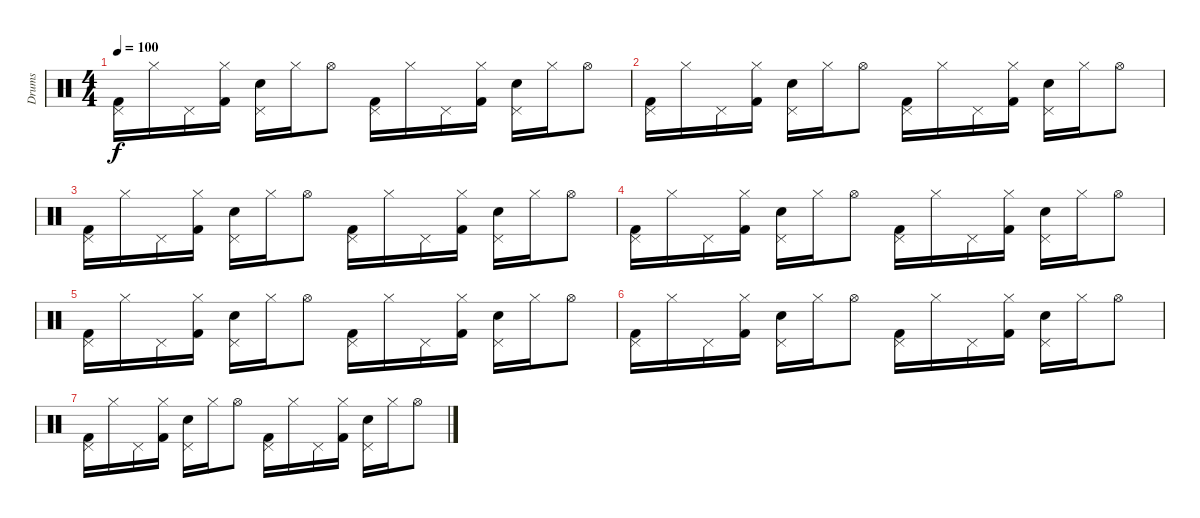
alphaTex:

\track ("Drums" "Drums") {instrument percussion}
\staff {score}
\articulation defaults
\ts (4 4)
\tempo 100
\clef neutral
\ks c
("Pedal Hi-Hat (hit)" "Kick (hit) 2").16{dy f} "Hi-Hat (closed)".16 "Pedal Hi-Hat (hit)".16 ("Hi-Hat (closed)" "Kick (hit) 2").16 ("Pedal Hi-Hat (hit)" "Electric Snare (hit)").16 "Hi-Hat (closed)".16 "Hi-Hat (open)".8 ("Pedal Hi-Hat (hit)" "Kick (hit) 2").16 "Hi-Hat (closed)".16 "Pedal Hi-Hat (hit)".16 ("Hi-Hat (closed)" "Kick (hit) 2").16 ("Pedal Hi-Hat (hit)" "Electric Snare (hit)").16 "Hi-Hat (closed)".16 "Hi-Hat (open)".8 |
("Pedal Hi-Hat (hit)" "Kick (hit) 2").16 "Hi-Hat (closed)".16 "Pedal Hi-Hat (hit)".16 ("Hi-Hat (closed)" "Kick (hit) 2").16 ("Pedal Hi-Hat (hit)" "Electric Snare (hit)").16 "Hi-Hat (closed)".16 "Hi-Hat (open)".8 ("Pedal Hi-Hat (hit)" "Kick (hit) 2").16 "Hi-Hat (closed)".16 "Pedal Hi-Hat (hit)".16 ("Hi-Hat (closed)" "Kick (hit) 2").16 ("Pedal Hi-Hat (hit)" "Electric Snare (hit)").16 "Hi-Hat (closed)".16 "Hi-Hat (open)".8 |
("Pedal Hi-Hat (hit)" "Kick (hit) 2").16 "Hi-Hat (closed)".16 "Pedal Hi-Hat (hit)".16 ("Hi-Hat (closed)" "Kick (hit) 2").16 ("Pedal Hi-Hat (hit)" "Electric Snare (hit)").16 "Hi-Hat (closed)".16 "Hi-Hat (open)".8 ("Pedal Hi-Hat (hit)" "Kick (hit) 2").16 "Hi-Hat (closed)".16 "Pedal Hi-Hat (hit)".16 ("Hi-Hat (closed)" "Kick (hit) 2").16 ("Pedal Hi-Hat (hit)" "Electric Snare (hit)").16 "Hi-Hat (closed)".16 "Hi-Hat (open)".8 |
("Pedal Hi-Hat (hit)" "Kick (hit) 2").16 "Hi-Hat (closed)".16 "Pedal Hi-Hat (hit)".16 ("Hi-Hat (closed)" "Kick (hit) 2").16 ("Pedal Hi-Hat (hit)" "Electric Snare (hit)").16 "Hi-Hat (closed)".16 "Hi-Hat (open)".8 ("Pedal Hi-Hat (hit)" "Kick (hit) 2").16 "Hi-Hat (closed)".16 "Pedal Hi-Hat (hit)".16 ("Hi-Hat (closed)" "Kick (hit) 2").16 ("Pedal Hi-Hat (hit)" "Electric Snare (hit)").16 "Hi-Hat (closed)".16 "Hi-Hat (open)".8 |
("Pedal Hi-Hat (hit)" "Kick (hit) 2").16 "Hi-Hat (closed)".16 "Pedal Hi-Hat (hit)".16 ("Hi-Hat (closed)" "Kick (hit) 2").16 ("Pedal Hi-Hat (hit)" "Electric Snare (hit)").16 "Hi-Hat (closed)".16 "Hi-Hat (open)".8 ("Pedal Hi-Hat (hit)" "Kick (hit) 2").16 "Hi-Hat (closed)".16 "Pedal Hi-Hat (hit)".16 ("Hi-Hat (closed)" "Kick (hit) 2").16 ("Pedal Hi-Hat (hit)" "Electric Snare (hit)").16 "Hi-Hat (closed)".16 "Hi-Hat (open)".8 |
("Pedal Hi-Hat (hit)" "Kick (hit) 2").16 "Hi-Hat (closed)".16 "Pedal Hi-Hat (hit)".16 ("Hi-Hat (closed)" "Kick (hit) 2").16 ("Pedal Hi-Hat (hit)" "Electric Snare (hit)").16 "Hi-Hat (closed)".16 "Hi-Hat (open)".8 ("Pedal Hi-Hat (hit)" "Kick (hit) 2").16 "Hi-Hat (closed)".16 "Pedal Hi-Hat (hit)".16 ("Hi-Hat (closed)" "Kick (hit) 2").16 ("Pedal Hi-Hat (hit)" "Electric Snare (hit)").16 "Hi-Hat (closed)".16 "Hi-Hat (open)".8 |
("Pedal Hi-Hat (hit)" "Kick (hit) 2").16 "Hi-Hat (closed)".16 "Pedal Hi-Hat (hit)".16 ("Hi-Hat (closed)" "Kick (hit) 2").16 ("Pedal Hi-Hat (hit)" "Electric Snare (hit)").16 "Hi-Hat (closed)".16 "Hi-Hat (open)".8 ("Pedal Hi-Hat (hit)" "Kick (hit) 2").16 "Hi-Hat (closed)".16 "Pedal Hi-Hat (hit)".16 ("Hi-Hat (closed)" "Kick (hit) 2").16 ("Pedal Hi-Hat (hit)" "Electric Snare (hit)").16 "Hi-Hat (closed)".16 "Hi-Hat (open)".8
